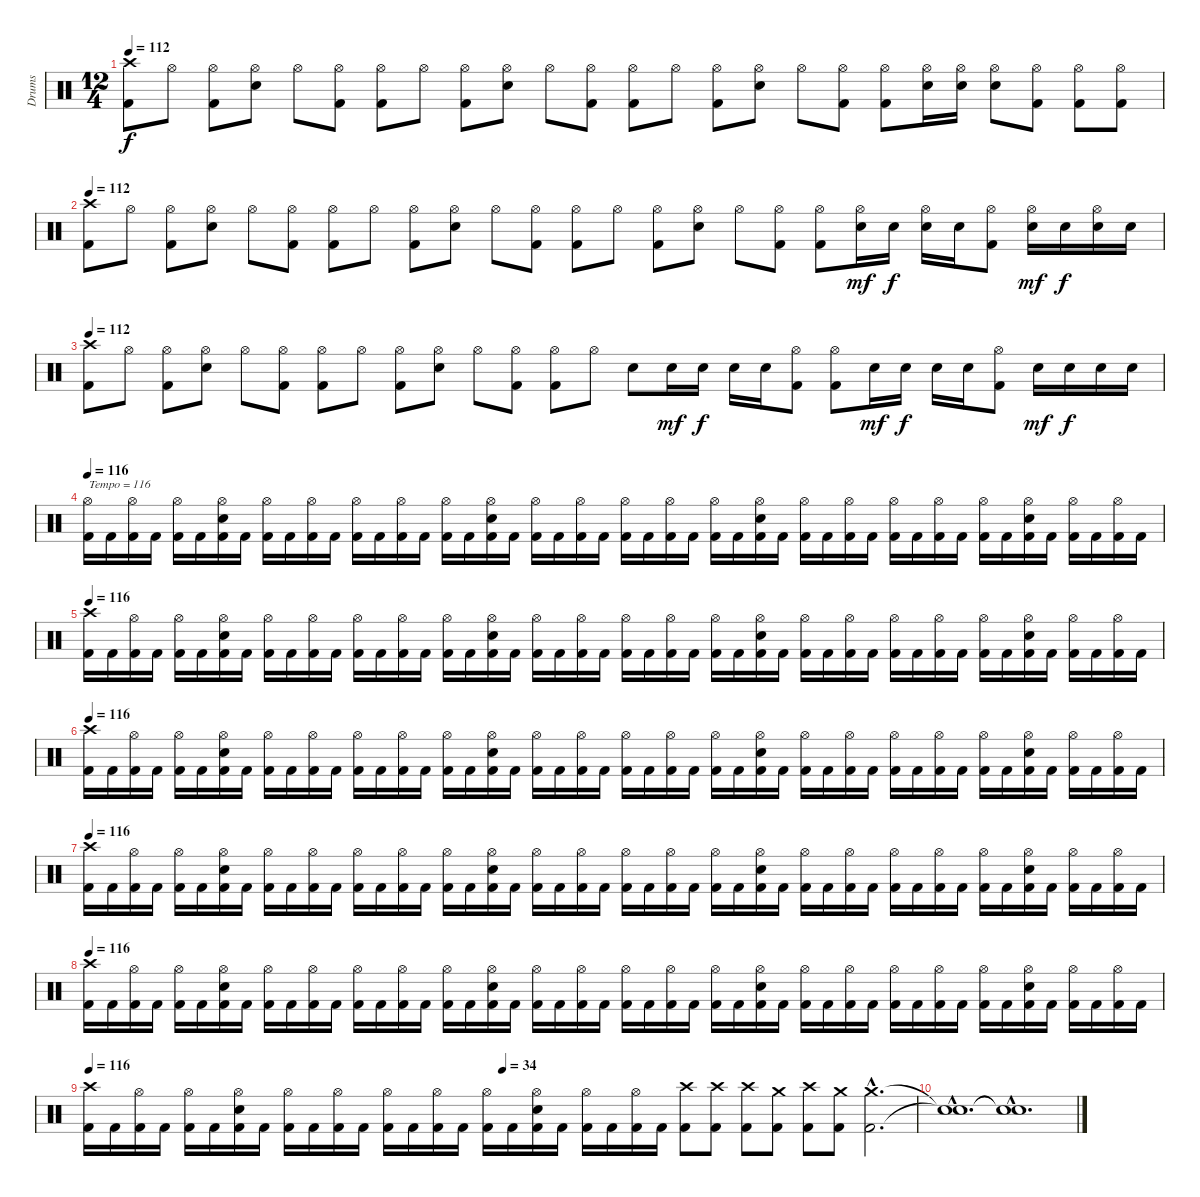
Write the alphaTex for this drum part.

\track ("Drums" "Drums") {instrument percussion}
\staff {score}
\articulation defaults
\ts (12 4)
\tempo 112
\clef neutral
\ks c
("Crash high (hit)" "Kick (hit) 2").8{dy f} "Hi-Hat (open)".8 ("Hi-Hat (open)" "Kick (hit) 2").8 ("Hi-Hat (open)" "Electric Snare (hit)").8 "Hi-Hat (open)".8 ("Hi-Hat (open)" "Kick (hit) 2").8 ("Hi-Hat (open)" "Kick (hit) 2").8 "Hi-Hat (open)".8 ("Hi-Hat (open)" "Kick (hit) 2").8 ("Hi-Hat (open)" "Electric Snare (hit)").8 "Hi-Hat (open)".8 ("Hi-Hat (open)" "Kick (hit) 2").8 ("Hi-Hat (open)" "Kick (hit) 2").8 "Hi-Hat (open)".8 ("Hi-Hat (open)" "Kick (hit) 2").8 ("Hi-Hat (open)" "Electric Snare (hit)").8 "Hi-Hat (open)".8 ("Hi-Hat (open)" "Kick (hit) 2").8 ("Hi-Hat (open)" "Kick (hit) 2").8 ("Hi-Hat (open)" "Electric Snare (hit)").16 ("Hi-Hat (open)" "Electric Snare (hit)").16 ("Hi-Hat (open)" "Electric Snare (hit)").8 ("Hi-Hat (open)" "Kick (hit) 2").8 ("Hi-Hat (open)" "Kick (hit) 2").8 ("Hi-Hat (open)" "Kick (hit) 2").8 |
\tempo 112
("Crash high (hit)" "Kick (hit) 2").8 "Hi-Hat (open)".8 ("Hi-Hat (open)" "Kick (hit) 2").8 ("Hi-Hat (open)" "Electric Snare (hit)").8 "Hi-Hat (open)".8 ("Hi-Hat (open)" "Kick (hit) 2").8 ("Hi-Hat (open)" "Kick (hit) 2").8 "Hi-Hat (open)".8 ("Hi-Hat (open)" "Kick (hit) 2").8 ("Hi-Hat (open)" "Electric Snare (hit)").8 "Hi-Hat (open)".8 ("Hi-Hat (open)" "Kick (hit) 2").8 ("Hi-Hat (open)" "Kick (hit) 2").8 "Hi-Hat (open)".8 ("Hi-Hat (open)" "Kick (hit) 2").8 ("Hi-Hat (open)" "Electric Snare (hit)").8 "Hi-Hat (open)".8 ("Hi-Hat (open)" "Kick (hit) 2").8 ("Hi-Hat (open)" "Kick (hit) 2").8 ("Hi-Hat (open)" "Electric Snare (hit)").16{dy mf} "Electric Snare (hit)".16{dy f} ("Hi-Hat (open)" "Electric Snare (hit)").16 "Electric Snare (hit)".16 ("Hi-Hat (open)" "Kick (hit) 2").8 ("Hi-Hat (open)" "Electric Snare (hit)").16{dy mf} "Electric Snare (hit)".16{dy f} ("Hi-Hat (open)" "Electric Snare (hit)").16 "Electric Snare (hit)".16 |
\tempo 112
("Crash high (hit)" "Kick (hit) 2").8 "Hi-Hat (open)".8 ("Hi-Hat (open)" "Kick (hit) 2").8 ("Hi-Hat (open)" "Electric Snare (hit)").8 "Hi-Hat (open)".8 ("Hi-Hat (open)" "Kick (hit) 2").8 ("Hi-Hat (open)" "Kick (hit) 2").8 "Hi-Hat (open)".8 ("Hi-Hat (open)" "Kick (hit) 2").8 ("Hi-Hat (open)" "Electric Snare (hit)").8 "Hi-Hat (open)".8 ("Hi-Hat (open)" "Kick (hit) 2").8 ("Hi-Hat (open)" "Kick (hit) 2").8 "Hi-Hat (open)".8 "Electric Snare (hit)".8 "Electric Snare (hit)".16{dy mf} "Electric Snare (hit)".16{dy f} "Electric Snare (hit)".16 "Electric Snare (hit)".16 ("Hi-Hat (open)" "Kick (hit) 2").8 ("Hi-Hat (open)" "Kick (hit) 2").8 "Electric Snare (hit)".16{dy mf} "Electric Snare (hit)".16{dy f} "Electric Snare (hit)".16 "Electric Snare (hit)".16 ("Hi-Hat (open)" "Kick (hit) 2").8 "Electric Snare (hit)".16{dy mf} "Electric Snare (hit)".16{dy f} "Electric Snare (hit)".16 "Electric Snare (hit)".16 |
\tempo 116
("Hi-Hat (open)" "Kick (hit) 2").16{txt "Tempo = 116"} "Kick (hit) 2".16 ("Hi-Hat (open)" "Kick (hit) 2").16 "Kick (hit) 2".16 ("Hi-Hat (open)" "Kick (hit) 2").16 "Kick (hit) 2".16 ("Hi-Hat (open)" "Electric Snare (hit)" "Kick (hit) 2").16 "Kick (hit) 2".16 ("Hi-Hat (open)" "Kick (hit) 2").16 "Kick (hit) 2".16 ("Hi-Hat (open)" "Kick (hit) 2").16 "Kick (hit) 2".16 ("Hi-Hat (open)" "Kick (hit) 2").16 "Kick (hit) 2".16 ("Hi-Hat (open)" "Kick (hit) 2").16 "Kick (hit) 2".16 ("Hi-Hat (open)" "Kick (hit) 2").16 "Kick (hit) 2".16 ("Hi-Hat (open)" "Electric Snare (hit)" "Kick (hit) 2").16 "Kick (hit) 2".16 ("Hi-Hat (open)" "Kick (hit) 2").16 "Kick (hit) 2".16 ("Hi-Hat (open)" "Kick (hit) 2").16 "Kick (hit) 2".16 ("Hi-Hat (open)" "Kick (hit) 2").16 "Kick (hit) 2".16 ("Hi-Hat (open)" "Kick (hit) 2").16 "Kick (hit) 2".16 ("Hi-Hat (open)" "Kick (hit) 2").16 "Kick (hit) 2".16 ("Hi-Hat (open)" "Electric Snare (hit)" "Kick (hit) 2").16 "Kick (hit) 2".16 ("Hi-Hat (open)" "Kick (hit) 2").16 "Kick (hit) 2".16 ("Hi-Hat (open)" "Kick (hit) 2").16 "Kick (hit) 2".16 ("Hi-Hat (open)" "Kick (hit) 2").16 "Kick (hit) 2".16 ("Hi-Hat (open)" "Kick (hit) 2").16 "Kick (hit) 2".16 ("Hi-Hat (open)" "Kick (hit) 2").16 "Kick (hit) 2".16 ("Hi-Hat (open)" "Electric Snare (hit)" "Kick (hit) 2").16 "Kick (hit) 2".16 ("Hi-Hat (open)" "Kick (hit) 2").16 "Kick (hit) 2".16 ("Hi-Hat (open)" "Kick (hit) 2").16 "Kick (hit) 2".16 |
\tempo 116
("Crash high (hit)" "Kick (hit) 2").16 "Kick (hit) 2".16 ("Hi-Hat (open)" "Kick (hit) 2").16 "Kick (hit) 2".16 ("Hi-Hat (open)" "Kick (hit) 2").16 "Kick (hit) 2".16 ("Hi-Hat (open)" "Electric Snare (hit)" "Kick (hit) 2").16 "Kick (hit) 2".16 ("Hi-Hat (open)" "Kick (hit) 2").16 "Kick (hit) 2".16 ("Hi-Hat (open)" "Kick (hit) 2").16 "Kick (hit) 2".16 ("Hi-Hat (open)" "Kick (hit) 2").16 "Kick (hit) 2".16 ("Hi-Hat (open)" "Kick (hit) 2").16 "Kick (hit) 2".16 ("Hi-Hat (open)" "Kick (hit) 2").16 "Kick (hit) 2".16 ("Hi-Hat (open)" "Electric Snare (hit)" "Kick (hit) 2").16 "Kick (hit) 2".16 ("Hi-Hat (open)" "Kick (hit) 2").16 "Kick (hit) 2".16 ("Hi-Hat (open)" "Kick (hit) 2").16 "Kick (hit) 2".16 ("Hi-Hat (open)" "Kick (hit) 2").16 "Kick (hit) 2".16 ("Hi-Hat (open)" "Kick (hit) 2").16 "Kick (hit) 2".16 ("Hi-Hat (open)" "Kick (hit) 2").16 "Kick (hit) 2".16 ("Hi-Hat (open)" "Electric Snare (hit)" "Kick (hit) 2").16 "Kick (hit) 2".16 ("Hi-Hat (open)" "Kick (hit) 2").16 "Kick (hit) 2".16 ("Hi-Hat (open)" "Kick (hit) 2").16 "Kick (hit) 2".16 ("Hi-Hat (open)" "Kick (hit) 2").16 "Kick (hit) 2".16 ("Hi-Hat (open)" "Kick (hit) 2").16 "Kick (hit) 2".16 ("Hi-Hat (open)" "Kick (hit) 2").16 "Kick (hit) 2".16 ("Hi-Hat (open)" "Electric Snare (hit)" "Kick (hit) 2").16 "Kick (hit) 2".16 ("Hi-Hat (open)" "Kick (hit) 2").16 "Kick (hit) 2".16 ("Hi-Hat (open)" "Kick (hit) 2").16 "Kick (hit) 2".16 |
\tempo 116
("Crash high (hit)" "Kick (hit) 2").16 "Kick (hit) 2".16 ("Hi-Hat (open)" "Kick (hit) 2").16 "Kick (hit) 2".16 ("Hi-Hat (open)" "Kick (hit) 2").16 "Kick (hit) 2".16 ("Hi-Hat (open)" "Electric Snare (hit)" "Kick (hit) 2").16 "Kick (hit) 2".16 ("Hi-Hat (open)" "Kick (hit) 2").16 "Kick (hit) 2".16 ("Hi-Hat (open)" "Kick (hit) 2").16 "Kick (hit) 2".16 ("Hi-Hat (open)" "Kick (hit) 2").16 "Kick (hit) 2".16 ("Hi-Hat (open)" "Kick (hit) 2").16 "Kick (hit) 2".16 ("Hi-Hat (open)" "Kick (hit) 2").16 "Kick (hit) 2".16 ("Hi-Hat (open)" "Electric Snare (hit)" "Kick (hit) 2").16 "Kick (hit) 2".16 ("Hi-Hat (open)" "Kick (hit) 2").16 "Kick (hit) 2".16 ("Hi-Hat (open)" "Kick (hit) 2").16 "Kick (hit) 2".16 ("Hi-Hat (open)" "Kick (hit) 2").16 "Kick (hit) 2".16 ("Hi-Hat (open)" "Kick (hit) 2").16 "Kick (hit) 2".16 ("Hi-Hat (open)" "Kick (hit) 2").16 "Kick (hit) 2".16 ("Hi-Hat (open)" "Electric Snare (hit)" "Kick (hit) 2").16 "Kick (hit) 2".16 ("Hi-Hat (open)" "Kick (hit) 2").16 "Kick (hit) 2".16 ("Hi-Hat (open)" "Kick (hit) 2").16 "Kick (hit) 2".16 ("Hi-Hat (open)" "Kick (hit) 2").16 "Kick (hit) 2".16 ("Hi-Hat (open)" "Kick (hit) 2").16 "Kick (hit) 2".16 ("Hi-Hat (open)" "Kick (hit) 2").16 "Kick (hit) 2".16 ("Hi-Hat (open)" "Electric Snare (hit)" "Kick (hit) 2").16 "Kick (hit) 2".16 ("Hi-Hat (open)" "Kick (hit) 2").16 "Kick (hit) 2".16 ("Hi-Hat (open)" "Kick (hit) 2").16 "Kick (hit) 2".16 |
\tempo 116
("Crash high (hit)" "Kick (hit) 2").16 "Kick (hit) 2".16 ("Hi-Hat (open)" "Kick (hit) 2").16 "Kick (hit) 2".16 ("Hi-Hat (open)" "Kick (hit) 2").16 "Kick (hit) 2".16 ("Hi-Hat (open)" "Electric Snare (hit)" "Kick (hit) 2").16 "Kick (hit) 2".16 ("Hi-Hat (open)" "Kick (hit) 2").16 "Kick (hit) 2".16 ("Hi-Hat (open)" "Kick (hit) 2").16 "Kick (hit) 2".16 ("Hi-Hat (open)" "Kick (hit) 2").16 "Kick (hit) 2".16 ("Hi-Hat (open)" "Kick (hit) 2").16 "Kick (hit) 2".16 ("Hi-Hat (open)" "Kick (hit) 2").16 "Kick (hit) 2".16 ("Hi-Hat (open)" "Electric Snare (hit)" "Kick (hit) 2").16 "Kick (hit) 2".16 ("Hi-Hat (open)" "Kick (hit) 2").16 "Kick (hit) 2".16 ("Hi-Hat (open)" "Kick (hit) 2").16 "Kick (hit) 2".16 ("Hi-Hat (open)" "Kick (hit) 2").16 "Kick (hit) 2".16 ("Hi-Hat (open)" "Kick (hit) 2").16 "Kick (hit) 2".16 ("Hi-Hat (open)" "Kick (hit) 2").16 "Kick (hit) 2".16 ("Hi-Hat (open)" "Electric Snare (hit)" "Kick (hit) 2").16 "Kick (hit) 2".16 ("Hi-Hat (open)" "Kick (hit) 2").16 "Kick (hit) 2".16 ("Hi-Hat (open)" "Kick (hit) 2").16 "Kick (hit) 2".16 ("Hi-Hat (open)" "Kick (hit) 2").16 "Kick (hit) 2".16 ("Hi-Hat (open)" "Kick (hit) 2").16 "Kick (hit) 2".16 ("Hi-Hat (open)" "Kick (hit) 2").16 "Kick (hit) 2".16 ("Hi-Hat (open)" "Electric Snare (hit)" "Kick (hit) 2").16 "Kick (hit) 2".16 ("Hi-Hat (open)" "Kick (hit) 2").16 "Kick (hit) 2".16 ("Hi-Hat (open)" "Kick (hit) 2").16 "Kick (hit) 2".16 |
\tempo 116
("Crash high (hit)" "Kick (hit) 2").16 "Kick (hit) 2".16 ("Hi-Hat (open)" "Kick (hit) 2").16 "Kick (hit) 2".16 ("Hi-Hat (open)" "Kick (hit) 2").16 "Kick (hit) 2".16 ("Hi-Hat (open)" "Electric Snare (hit)" "Kick (hit) 2").16 "Kick (hit) 2".16 ("Hi-Hat (open)" "Kick (hit) 2").16 "Kick (hit) 2".16 ("Hi-Hat (open)" "Kick (hit) 2").16 "Kick (hit) 2".16 ("Hi-Hat (open)" "Kick (hit) 2").16 "Kick (hit) 2".16 ("Hi-Hat (open)" "Kick (hit) 2").16 "Kick (hit) 2".16 ("Hi-Hat (open)" "Kick (hit) 2").16 "Kick (hit) 2".16 ("Hi-Hat (open)" "Electric Snare (hit)" "Kick (hit) 2").16 "Kick (hit) 2".16 ("Hi-Hat (open)" "Kick (hit) 2").16 "Kick (hit) 2".16 ("Hi-Hat (open)" "Kick (hit) 2").16 "Kick (hit) 2".16 ("Hi-Hat (open)" "Kick (hit) 2").16 "Kick (hit) 2".16 ("Hi-Hat (open)" "Kick (hit) 2").16 "Kick (hit) 2".16 ("Hi-Hat (open)" "Kick (hit) 2").16 "Kick (hit) 2".16 ("Hi-Hat (open)" "Electric Snare (hit)" "Kick (hit) 2").16 "Kick (hit) 2".16 ("Hi-Hat (open)" "Kick (hit) 2").16 "Kick (hit) 2".16 ("Hi-Hat (open)" "Kick (hit) 2").16 "Kick (hit) 2".16 ("Hi-Hat (open)" "Kick (hit) 2").16 "Kick (hit) 2".16 ("Hi-Hat (open)" "Kick (hit) 2").16 "Kick (hit) 2".16 ("Hi-Hat (open)" "Kick (hit) 2").16 "Kick (hit) 2".16 ("Hi-Hat (open)" "Electric Snare (hit)" "Kick (hit) 2").16 "Kick (hit) 2".16 ("Hi-Hat (open)" "Kick (hit) 2").16 "Kick (hit) 2".16 ("Hi-Hat (open)" "Kick (hit) 2").16 "Kick (hit) 2".16 |
\tempo 116
\tempo (34 0.5)
("Crash high (hit)" "Kick (hit) 2").16 "Kick (hit) 2".16 ("Hi-Hat (open)" "Kick (hit) 2").16 "Kick (hit) 2".16 ("Hi-Hat (open)" "Kick (hit) 2").16 "Kick (hit) 2".16 ("Hi-Hat (open)" "Electric Snare (hit)" "Kick (hit) 2").16 "Kick (hit) 2".16 ("Hi-Hat (open)" "Kick (hit) 2").16 "Kick (hit) 2".16 ("Hi-Hat (open)" "Kick (hit) 2").16 "Kick (hit) 2".16 ("Hi-Hat (open)" "Kick (hit) 2").16 "Kick (hit) 2".16 ("Hi-Hat (open)" "Kick (hit) 2").16 "Kick (hit) 2".16 ("Hi-Hat (open)" "Kick (hit) 2").16 "Kick (hit) 2".16 ("Hi-Hat (open)" "Electric Snare (hit)" "Kick (hit) 2").16 "Kick (hit) 2".16 ("Hi-Hat (open)" "Kick (hit) 2").16 "Kick (hit) 2".16 ("Hi-Hat (open)" "Kick (hit) 2").16 "Kick (hit) 2".16 ("Crash high (hit)" "Kick (hit) 2").8 ("Crash high (hit)" "Kick (hit) 2").8 ("Crash high (hit)" "Kick (hit) 2").8 ("Crash medium (hit)" "Kick (hit) 2").8 ("Crash high (hit)" "Kick (hit) 2").8 ("Crash medium (hit)" "Kick (hit) 2").8 ("Crash medium (hit)"{hac} "Kick (hit) 2"{hac}).2{d} |
("Snare (hit)"{hac t} "Snare (hit)"{hac t}).1{d} ("Snare (hit)"{hac t} "Snare (hit)"{hac t}).1{d}
